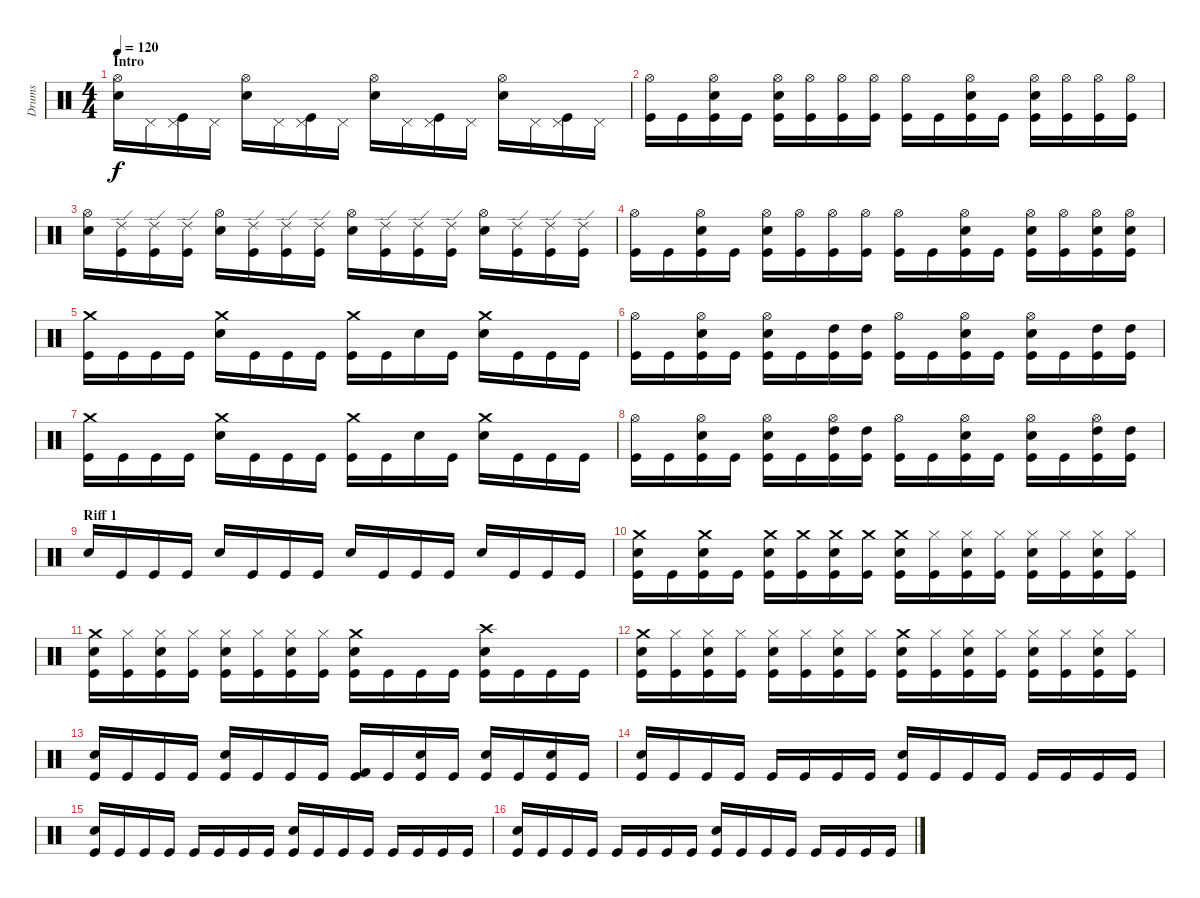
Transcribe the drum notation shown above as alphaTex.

\track ("Drums" "Drums") {instrument percussion}
\staff {score}
\articulation defaults
\ts (4 4)
\section ("" "Intro")
\tempo 120
\clef neutral
\ks c
("Hi-Hat (open)" "Snare (hit) 2").16{dy f} "Pedal Hi-Hat (hit)".16 ("Pedal Hi-Hat (hit)" "Kick (hit)").16 "Pedal Hi-Hat (hit)".16 ("Hi-Hat (open)" "Snare (hit) 2").16 "Pedal Hi-Hat (hit)".16 ("Pedal Hi-Hat (hit)" "Kick (hit)").16 "Pedal Hi-Hat (hit)".16 ("Hi-Hat (open)" "Snare (hit) 2").16 "Pedal Hi-Hat (hit)".16 ("Pedal Hi-Hat (hit)" "Kick (hit)").16 "Pedal Hi-Hat (hit)".16 ("Hi-Hat (open)" "Snare (hit) 2").16 "Pedal Hi-Hat (hit)".16 ("Pedal Hi-Hat (hit)" "Kick (hit)").16 "Pedal Hi-Hat (hit)".16 |
("Hi-Hat (open)" "Kick (hit)").16 "Kick (hit)".16 ("Hi-Hat (open)" "Snare (hit) 2" "Kick (hit)").16 "Kick (hit)".16 ("Hi-Hat (open)" "Snare (hit) 2" "Kick (hit)").16 ("Hi-Hat (open)" "Kick (hit)").16 ("Hi-Hat (open)" "Kick (hit)").16 ("Hi-Hat (open)" "Kick (hit)").16 ("Hi-Hat (open)" "Kick (hit)").16 "Kick (hit)".16 ("Hi-Hat (open)" "Snare (hit) 2" "Kick (hit)").16 "Kick (hit)".16 ("Hi-Hat (open)" "Snare (hit) 2" "Kick (hit)").16 ("Hi-Hat (open)" "Kick (hit)").16 ("Hi-Hat (open)" "Kick (hit)").16 ("Hi-Hat (open)" "Kick (hit)").16 |
("Hi-Hat (open)" "Snare (hit) 2").16 ("Ride (edge) 2" "Kick (hit)").16 ("Ride (edge) 2" "Kick (hit)").16 ("Ride (edge) 2" "Kick (hit)").16 ("Hi-Hat (open)" "Snare (hit) 2").16 ("Ride (edge) 2" "Kick (hit)").16 ("Ride (edge) 2" "Kick (hit)").16 ("Ride (edge) 2" "Kick (hit)").16 ("Hi-Hat (open)" "Snare (hit) 2").16 ("Ride (edge) 2" "Kick (hit)").16 ("Ride (edge) 2" "Kick (hit)").16 ("Ride (edge) 2" "Kick (hit)").16 ("Hi-Hat (open)" "Snare (hit) 2").16 ("Ride (edge) 2" "Kick (hit)").16 ("Ride (edge) 2" "Kick (hit)").16 ("Ride (edge) 2" "Kick (hit)").16 |
("Hi-Hat (open)" "Kick (hit)").16 "Kick (hit)".16 ("Hi-Hat (open)" "Snare (hit) 2" "Kick (hit)").16 "Kick (hit)".16 ("Hi-Hat (open)" "Snare (hit) 2" "Kick (hit)").16 ("Hi-Hat (open)" "Kick (hit)").16 ("Hi-Hat (open)" "Kick (hit)").16 ("Hi-Hat (open)" "Kick (hit)").16 ("Hi-Hat (open)" "Kick (hit)").16 "Kick (hit)".16 ("Hi-Hat (open)" "Snare (hit) 2" "Kick (hit)").16 "Kick (hit)".16 ("Hi-Hat (open)" "Snare (hit) 2" "Kick (hit)").16 ("Hi-Hat (open)" "Kick (hit)").16 ("Hi-Hat (open)" "Snare (hit) 2" "Kick (hit)").16 ("Hi-Hat (open)" "Snare (hit) 2" "Kick (hit)").16 |
("Crash medium (hit)" "Kick (hit)").16 "Kick (hit)".16 "Kick (hit)".16 "Kick (hit)".16 ("Crash medium (hit)" "Snare (hit) 2").16 "Kick (hit)".16 "Kick (hit)".16 "Kick (hit)".16 ("Crash medium (hit)" "Kick (hit)").16 "Kick (hit)".16 "Snare (hit) 2".16 "Kick (hit)".16 ("Crash medium (hit)" "Snare (hit) 2").16 "Kick (hit)".16 "Kick (hit)".16 "Kick (hit)".16 |
("Hi-Hat (open)" "Kick (hit)").16 "Kick (hit)".16 ("Hi-Hat (open)" "Electric Snare (hit)" "Kick (hit)").16 "Kick (hit)".16 ("Hi-Hat (open)" "Electric Snare (hit)" "Kick (hit)").16 "Kick (hit)".16 ("High Tom (hit)" "Kick (hit)").16 ("High Tom (hit)" "Kick (hit)").16 ("Hi-Hat (open)" "Kick (hit)").16 "Kick (hit)".16 ("Hi-Hat (open)" "Electric Snare (hit)" "Kick (hit)").16 "Kick (hit)".16 ("Hi-Hat (open)" "Electric Snare (hit)" "Kick (hit)").16 "Kick (hit)".16 ("High Tom (hit)" "Kick (hit)").16 ("High Tom (hit)" "Kick (hit)").16 |
("Crash medium (hit)" "Kick (hit)").16 "Kick (hit)".16 "Kick (hit)".16 "Kick (hit)".16 ("Crash medium (hit)" "Snare (hit) 2").16 "Kick (hit)".16 "Kick (hit)".16 "Kick (hit)".16 ("Crash medium (hit)" "Kick (hit)").16 "Kick (hit)".16 "Snare (hit) 2".16 "Kick (hit)".16 ("Crash medium (hit)" "Snare (hit) 2").16 "Kick (hit)".16 "Kick (hit)".16 "Kick (hit)".16 |
("Hi-Hat (open)" "Kick (hit)").16 "Kick (hit)".16 ("Hi-Hat (open)" "Electric Snare (hit)" "Kick (hit)").16 "Kick (hit)".16 ("Hi-Hat (open)" "Electric Snare (hit)" "Kick (hit)").16 "Kick (hit)".16 ("Hi-Hat (open)" "High Tom (hit)" "Kick (hit)").16 ("High Tom (hit)" "Kick (hit)").16 ("Hi-Hat (open)" "Kick (hit)").16 "Kick (hit)".16 ("Hi-Hat (open)" "Electric Snare (hit)" "Kick (hit)").16 "Kick (hit)".16 ("Hi-Hat (open)" "Electric Snare (hit)" "Kick (hit)").16 "Kick (hit)".16 ("Hi-Hat (open)" "High Tom (hit)" "Kick (hit)").16 ("High Tom (hit)" "Kick (hit)").16 |
\section ("" "Riff 1")
"Snare (hit) 2".16 "Kick (hit)".16 "Kick (hit)".16 "Kick (hit)".16 "Snare (hit) 2".16 "Kick (hit)".16 "Kick (hit)".16 "Kick (hit)".16 "Snare (hit) 2".16 "Kick (hit)".16 "Kick (hit)".16 "Kick (hit)".16 "Snare (hit) 2".16 "Kick (hit)".16 "Kick (hit)".16 "Kick (hit)".16 |
("Crash medium (hit)" "Snare (hit) 2" "Kick (hit)").16 "Kick (hit)".16 ("Crash medium (hit)" "Snare (hit) 2" "Kick (hit)").16 "Kick (hit)".16 ("Crash medium (hit)" "Snare (hit) 2" "Kick (hit)").16 ("Crash medium (hit)" "Kick (hit)").16 ("Crash medium (hit)" "Snare (hit) 2" "Kick (hit)").16 ("Crash medium (hit)" "Kick (hit)").16 ("Crash medium (hit)" "Snare (hit) 2" "Kick (hit)").16 ("Hi-Hat (closed)" "Kick (hit)").16 ("Hi-Hat (closed)" "Snare (hit) 2" "Kick (hit)").16 ("Hi-Hat (closed)" "Kick (hit)").16 ("Hi-Hat (closed)" "Snare (hit) 2" "Kick (hit)").16 ("Hi-Hat (closed)" "Kick (hit)").16 ("Hi-Hat (closed)" "Snare (hit) 2" "Kick (hit)").16 ("Hi-Hat (closed)" "Kick (hit)").16 |
("Crash medium (hit)" "Snare (hit) 2" "Kick (hit)").16 ("Hi-Hat (closed)" "Kick (hit)").16 ("Hi-Hat (closed)" "Snare (hit) 2" "Kick (hit)").16 ("Hi-Hat (closed)" "Kick (hit)").16 ("Hi-Hat (closed)" "Snare (hit) 2" "Kick (hit)").16 ("Hi-Hat (closed)" "Kick (hit)").16 ("Hi-Hat (closed)" "Snare (hit) 2" "Kick (hit)").16 ("Hi-Hat (closed)" "Kick (hit)").16 ("Crash medium (hit)" "Snare (hit) 2" "Kick (hit)").16 "Kick (hit)".16 "Kick (hit)".16 "Kick (hit)".16 ("Crash high (hit)" "Snare (hit) 2" "Kick (hit)").16 "Kick (hit)".16 "Kick (hit)".16 "Kick (hit)".16 |
("Crash medium (hit)" "Snare (hit) 2" "Kick (hit)").16 ("Hi-Hat (closed)" "Kick (hit)").16 ("Hi-Hat (closed)" "Snare (hit) 2" "Kick (hit)").16 ("Hi-Hat (closed)" "Kick (hit)").16 ("Hi-Hat (closed)" "Snare (hit) 2" "Kick (hit)").16 ("Hi-Hat (closed)" "Kick (hit)").16 ("Hi-Hat (closed)" "Snare (hit) 2" "Kick (hit)").16 ("Hi-Hat (closed)" "Kick (hit)").16 ("Crash medium (hit)" "Snare (hit) 2" "Kick (hit)").16 ("Hi-Hat (closed)" "Kick (hit)").16 ("Hi-Hat (closed)" "Snare (hit) 2" "Kick (hit)").16 ("Hi-Hat (closed)" "Kick (hit)").16 ("Hi-Hat (closed)" "Snare (hit) 2" "Kick (hit)").16 ("Hi-Hat (closed)" "Kick (hit)").16 ("Hi-Hat (closed)" "Snare (hit) 2" "Kick (hit)").16 ("Hi-Hat (closed)" "Kick (hit)").16 |
("Snare (hit) 2" "Kick (hit)").16 "Kick (hit)".16 "Kick (hit)".16 "Kick (hit)".16 ("Snare (hit) 2" "Kick (hit)").16 "Kick (hit)".16 "Kick (hit)".16 "Kick (hit)".16 ("Kick (hit) 2" "Kick (hit)").16 "Kick (hit)".16 ("Snare (hit) 2" "Kick (hit)").16 "Kick (hit)".16 ("Snare (hit) 2" "Kick (hit)").16 "Kick (hit)".16 ("Snare (hit) 2" "Kick (hit)").16 "Kick (hit)".16 |
("Snare (hit) 2" "Kick (hit)").16 "Kick (hit)".16 "Kick (hit)".16 "Kick (hit)".16 "Kick (hit)".16 "Kick (hit)".16 "Kick (hit)".16 "Kick (hit)".16 ("Snare (hit) 2" "Kick (hit)").16 "Kick (hit)".16 "Kick (hit)".16 "Kick (hit)".16 "Kick (hit)".16 "Kick (hit)".16 "Kick (hit)".16 "Kick (hit)".16 |
("Snare (hit) 2" "Kick (hit)").16 "Kick (hit)".16 "Kick (hit)".16 "Kick (hit)".16 "Kick (hit)".16 "Kick (hit)".16 "Kick (hit)".16 "Kick (hit)".16 ("Snare (hit) 2" "Kick (hit)").16 "Kick (hit)".16 "Kick (hit)".16 "Kick (hit)".16 "Kick (hit)".16 "Kick (hit)".16 "Kick (hit)".16 "Kick (hit)".16 |
("Snare (hit) 2" "Kick (hit)").16 "Kick (hit)".16 "Kick (hit)".16 "Kick (hit)".16 "Kick (hit)".16 "Kick (hit)".16 "Kick (hit)".16 "Kick (hit)".16 ("Snare (hit) 2" "Kick (hit)").16 "Kick (hit)".16 "Kick (hit)".16 "Kick (hit)".16 "Kick (hit)".16 "Kick (hit)".16 "Kick (hit)".16 "Kick (hit)".16
